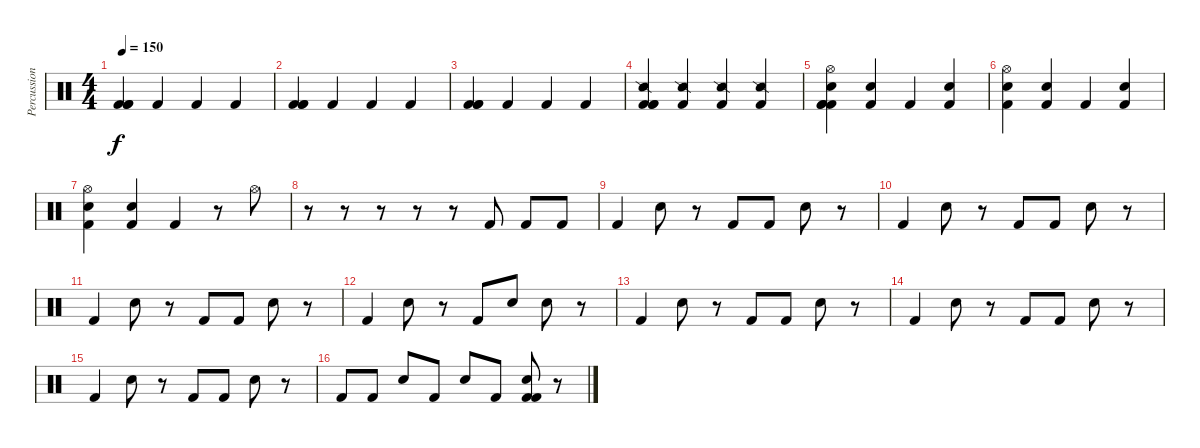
\track ("Percussions" "Percussion") {instrument percussion}
\staff {score}
\articulation defaults
\ts (4 4)
\tempo 150
\clef neutral
\ks c
("Kick (hit) 2" "Kick (hit) 2" "Kick (hit) 2").4{dy f} "Kick (hit) 2".4 "Kick (hit) 2".4 "Kick (hit) 2".4 |
("Kick (hit) 2" "Kick (hit) 2" "Kick (hit) 2").4 "Kick (hit) 2".4 "Kick (hit) 2".4 "Kick (hit) 2".4 |
("Kick (hit) 2" "Kick (hit) 2" "Kick (hit) 2").4 "Kick (hit) 2".4 "Kick (hit) 2".4 "Kick (hit) 2".4 |
("Kick (hit) 2" "Kick (hit) 2" "Kick (hit) 2" "Snare (side stick) 2").4 ("Kick (hit) 2" "Snare (side stick) 2").4 ("Kick (hit) 2" "Snare (side stick) 2").4 ("Kick (hit) 2" "Snare (side stick) 2").4 |
("Kick (hit) 2" "Kick (hit) 2" "Kick (hit) 2" "Snare (hit) 2" "Hi-Hat (open)").4 ("Kick (hit) 2" "Snare (hit) 2").4 "Kick (hit) 2".4 ("Kick (hit) 2" "Snare (hit) 2").4 |
("Kick (hit) 2" "Snare (hit) 2" "Hi-Hat (open)").4 ("Kick (hit) 2" "Snare (hit) 2").4 "Kick (hit) 2".4 ("Kick (hit) 2" "Snare (hit) 2").4 |
("Kick (hit) 2" "Snare (hit) 2" "Hi-Hat (open)").4 ("Kick (hit) 2" "Snare (hit) 2").4 "Kick (hit) 2".4 r.8 "Hi-Hat (open)".8 |
r.8 r.8 r.8 r.8 r.8 "Kick (hit) 2".8 "Kick (hit) 2".8 "Kick (hit) 2".8 |
"Kick (hit) 2".4 "Snare (hit) 2".8 r.8 "Kick (hit) 2".8 "Kick (hit) 2".8 "Snare (hit) 2".8 r.8 |
"Kick (hit) 2".4 "Snare (hit) 2".8 r.8 "Kick (hit) 2".8 "Kick (hit) 2".8 "Snare (hit) 2".8 r.8 |
"Kick (hit) 2".4 "Snare (hit) 2".8 r.8 "Kick (hit) 2".8 "Kick (hit) 2".8 "Snare (hit) 2".8 r.8 |
"Kick (hit) 2".4 "Snare (hit) 2".8 r.8 "Kick (hit) 2".8 "Snare (hit) 2".8 "Snare (hit) 2".8 r.8 |
"Kick (hit) 2".4 "Snare (hit) 2".8 r.8 "Kick (hit) 2".8 "Kick (hit) 2".8 "Snare (hit) 2".8 r.8 |
"Kick (hit) 2".4 "Snare (hit) 2".8 r.8 "Kick (hit) 2".8 "Kick (hit) 2".8 "Snare (hit) 2".8 r.8 |
"Kick (hit) 2".4 "Snare (hit) 2".8 r.8 "Kick (hit) 2".8 "Kick (hit) 2".8 "Snare (hit) 2".8 r.8 |
"Kick (hit) 2".8 "Kick (hit) 2".8 "Snare (hit) 2".8 "Kick (hit) 2".8 "Snare (hit) 2".8 "Kick (hit) 2".8 ("Snare (hit) 2" "Kick (hit) 2" "Kick (hit) 2").8 r.8
